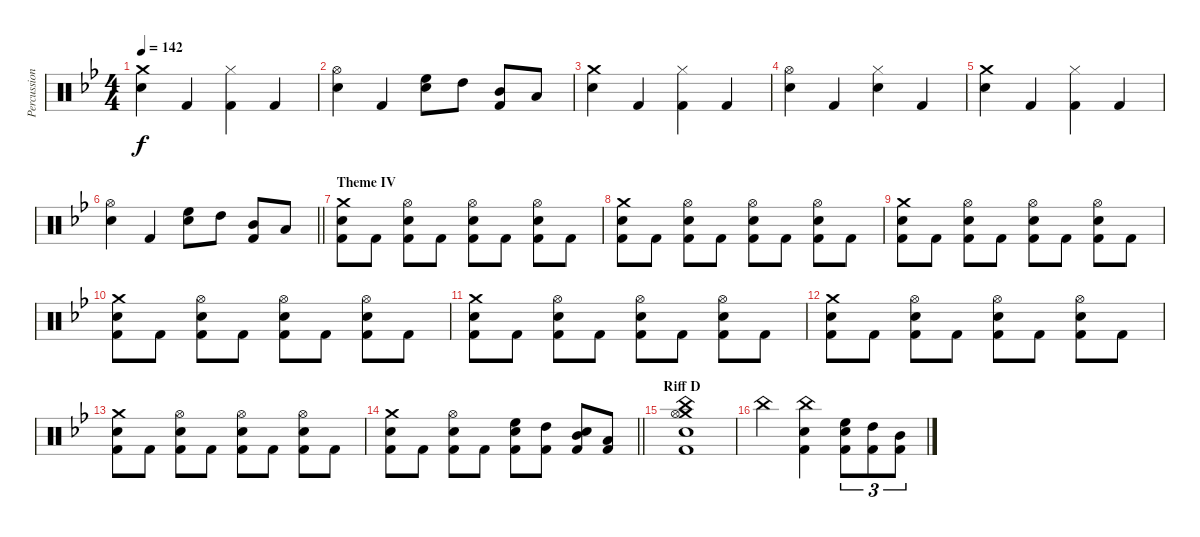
\track ("Percussion" "Percussion") {instrument percussion}
\staff {score}
\articulation defaults
\ts (4 4)
\tempo 142
\clef neutral
\ks gminor
("Crash medium (hit)" "Snare (hit) 2").4{dy f} "Kick (hit) 2".4 ("Hi-Hat (closed)" "Kick (hit) 2").4 "Kick (hit) 2".4 |
("Hi-Hat (open)" "Snare (hit) 2").4 "Kick (hit) 2".4 ("High Floor Tom (hit)" "Snare (hit) 2").8 "High Tom (hit)".8 ("Mid Tom (hit)" "Kick (hit) 2").8 "Low Tom (hit)".8 |
("Crash medium (hit)" "Snare (hit) 2").4 "Kick (hit) 2".4 ("Hi-Hat (closed)" "Kick (hit) 2").4 "Kick (hit) 2".4 |
("Hi-Hat (open)" "Snare (hit) 2").4 "Kick (hit) 2".4 ("Hi-Hat (closed)" "Snare (hit) 2").4 "Kick (hit) 2".4 |
("Crash medium (hit)" "Snare (hit) 2").4 "Kick (hit) 2".4 ("Hi-Hat (closed)" "Kick (hit) 2").4 "Kick (hit) 2".4 |
\barLineRight lightlight
("Hi-Hat (open)" "Snare (hit) 2").4 "Kick (hit) 2".4 ("High Floor Tom (hit)" "Snare (hit) 2").8 "High Tom (hit)".8 ("Mid Tom (hit)" "Kick (hit) 2").8 "Low Tom (hit)".8 |
\section ("" "Theme IV")
("Crash medium (hit)" "Snare (hit) 2" "Kick (hit) 2").8 "Kick (hit) 2".8 ("Hi-Hat (open)" "Snare (hit) 2" "Kick (hit) 2").8 "Kick (hit) 2".8 ("Hi-Hat (open)" "Snare (hit) 2" "Kick (hit) 2").8 "Kick (hit) 2".8 ("Hi-Hat (open)" "Snare (hit) 2" "Kick (hit) 2").8 "Kick (hit) 2".8 |
("Crash medium (hit)" "Snare (hit) 2" "Kick (hit) 2").8 "Kick (hit) 2".8 ("Hi-Hat (open)" "Snare (hit) 2" "Kick (hit) 2").8 "Kick (hit) 2".8 ("Hi-Hat (open)" "Snare (hit) 2" "Kick (hit) 2").8 "Kick (hit) 2".8 ("Hi-Hat (open)" "Snare (hit) 2" "Kick (hit) 2").8 "Kick (hit) 2".8 |
("Crash medium (hit)" "Snare (hit) 2" "Kick (hit) 2").8 "Kick (hit) 2".8 ("Hi-Hat (open)" "Snare (hit) 2" "Kick (hit) 2").8 "Kick (hit) 2".8 ("Hi-Hat (open)" "Snare (hit) 2" "Kick (hit) 2").8 "Kick (hit) 2".8 ("Hi-Hat (open)" "Snare (hit) 2" "Kick (hit) 2").8 "Kick (hit) 2".8 |
("Crash medium (hit)" "Snare (hit) 2" "Kick (hit) 2").8 "Kick (hit) 2".8 ("Hi-Hat (open)" "Snare (hit) 2" "Kick (hit) 2").8 "Kick (hit) 2".8 ("Hi-Hat (open)" "Snare (hit) 2" "Kick (hit) 2").8 "Kick (hit) 2".8 ("Hi-Hat (open)" "Snare (hit) 2" "Kick (hit) 2").8 "Kick (hit) 2".8 |
("Crash medium (hit)" "Snare (hit) 2" "Kick (hit) 2").8 "Kick (hit) 2".8 ("Hi-Hat (open)" "Snare (hit) 2" "Kick (hit) 2").8 "Kick (hit) 2".8 ("Hi-Hat (open)" "Snare (hit) 2" "Kick (hit) 2").8 "Kick (hit) 2".8 ("Hi-Hat (open)" "Snare (hit) 2" "Kick (hit) 2").8 "Kick (hit) 2".8 |
("Crash medium (hit)" "Snare (hit) 2" "Kick (hit) 2").8 "Kick (hit) 2".8 ("Hi-Hat (open)" "Snare (hit) 2" "Kick (hit) 2").8 "Kick (hit) 2".8 ("Hi-Hat (open)" "Snare (hit) 2" "Kick (hit) 2").8 "Kick (hit) 2".8 ("Hi-Hat (open)" "Snare (hit) 2" "Kick (hit) 2").8 "Kick (hit) 2".8 |
("Crash medium (hit)" "Snare (hit) 2" "Kick (hit) 2").8 "Kick (hit) 2".8 ("Hi-Hat (open)" "Snare (hit) 2" "Kick (hit) 2").8 "Kick (hit) 2".8 ("Hi-Hat (open)" "Snare (hit) 2" "Kick (hit) 2").8 "Kick (hit) 2".8 ("Hi-Hat (open)" "Snare (hit) 2" "Kick (hit) 2").8 "Kick (hit) 2".8 |
\barLineRight lightlight
("Crash medium (hit)" "Snare (hit) 2" "Kick (hit) 2").8 "Kick (hit) 2".8 ("Hi-Hat (open)" "Snare (hit) 2" "Kick (hit) 2").8 "Kick (hit) 2".8 ("High Floor Tom (hit)" "Snare (hit) 2" "Kick (hit) 2").8 ("High Tom (hit)" "Kick (hit) 2").8 ("Mid Tom (hit)" "Snare (hit) 2" "Kick (hit) 2").8 ("Low Tom (hit)" "Kick (hit) 2").8 |
\section ("" "Riff D")
("Crash medium (hit)" "China (hit)" "Hi-Hat (open)" "Snare (hit) 2" "Kick (hit) 2").1 |
"China (hit)".2 ("China (hit)" "Snare (hit) 2" "Kick (hit) 2").4 ("High Floor Tom (hit)" "Snare (hit) 2" "Kick (hit) 2").8{tu (3 2)} ("High Tom (hit)" "Kick (hit) 2").8{tu (3 2)} ("Mid Tom (hit)" "Kick (hit) 2").8{tu (3 2)}
